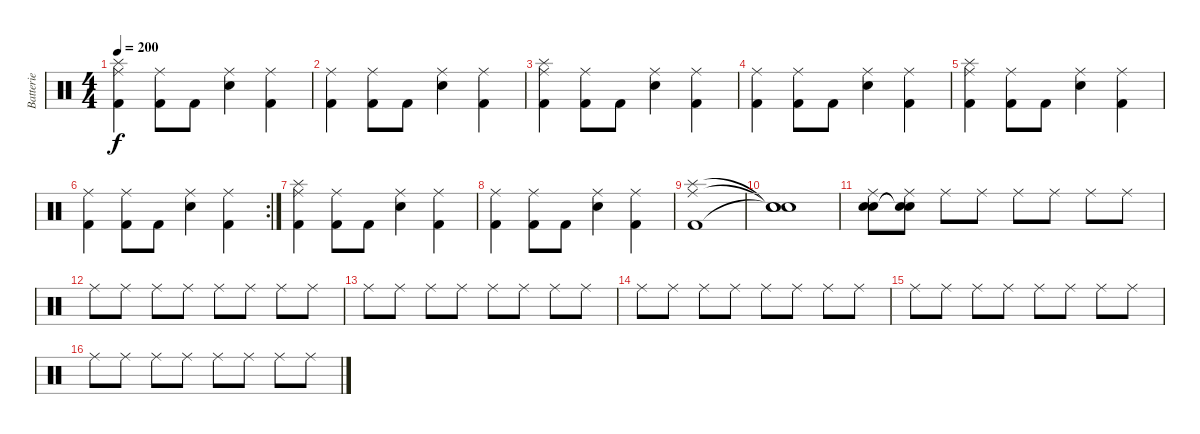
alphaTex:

\track ("Batterie" "Batterie") {instrument percussion}
\staff {score}
\articulation defaults
\ts (4 4)
\tempo 200
\clef neutral
\ks c
("Splash (hit)" "Ride (middle)" "Kick (hit) 2").4{dy f} ("Ride (middle)" "Kick (hit) 2").8 "Kick (hit) 2".8 ("Ride (middle)" "Snare (hit) 2").4 ("Ride (middle)" "Kick (hit) 2").4 |
("Ride (middle)" "Kick (hit) 2").4 ("Ride (middle)" "Kick (hit) 2").8 "Kick (hit) 2".8 ("Ride (middle)" "Snare (hit) 2").4 ("Ride (middle)" "Kick (hit) 2").4 |
("Splash (hit)" "Ride (middle)" "Kick (hit) 2").4 ("Ride (middle)" "Kick (hit) 2").8 "Kick (hit) 2".8 ("Ride (middle)" "Snare (hit) 2").4 ("Ride (middle)" "Kick (hit) 2").4 |
("Ride (middle)" "Kick (hit) 2").4 ("Ride (middle)" "Kick (hit) 2").8 "Kick (hit) 2".8 ("Ride (middle)" "Snare (hit) 2").4 ("Ride (middle)" "Kick (hit) 2").4 |
("Splash (hit)" "Ride (middle)" "Kick (hit) 2").4 ("Ride (middle)" "Kick (hit) 2").8 "Kick (hit) 2".8 ("Ride (middle)" "Snare (hit) 2").4 ("Ride (middle)" "Kick (hit) 2").4 |
\rc 2
("Ride (middle)" "Kick (hit) 2").4 ("Ride (middle)" "Kick (hit) 2").8 "Kick (hit) 2".8 ("Ride (middle)" "Snare (hit) 2").4 ("Ride (middle)" "Kick (hit) 2").4 |
("Splash (hit)" "Ride (middle)" "Kick (hit) 2").4 ("Ride (middle)" "Kick (hit) 2").8 "Kick (hit) 2".8 ("Ride (middle)" "Snare (hit) 2").4 ("Ride (middle)" "Kick (hit) 2").4 |
("Ride (middle)" "Kick (hit) 2").4 ("Ride (middle)" "Kick (hit) 2").8 "Kick (hit) 2".8 ("Ride (middle)" "Snare (hit) 2").4 ("Ride (middle)" "Kick (hit) 2").4 |
("Splash (hit)" "Ride (middle)" "Kick (hit) 2").1 |
("Snare (hit)"{t} "Snare (hit)"{t} "Snare (hit)"{t}).1 |
("Ride (middle)" "Snare (hit) 2" "Snare (hit) 2").8 ("Ride (middle)" "Snare (hit)"{t} "Snare (hit)"{t}).8 "Ride (middle)".8 "Ride (middle)".8 "Ride (middle)".8 "Ride (middle)".8 "Ride (middle)".8 "Ride (middle)".8 |
"Ride (middle)".8 "Ride (middle)".8 "Ride (middle)".8 "Ride (middle)".8 "Ride (middle)".8 "Ride (middle)".8 "Ride (middle)".8 "Ride (middle)".8 |
"Ride (middle)".8 "Ride (middle)".8 "Ride (middle)".8 "Ride (middle)".8 "Ride (middle)".8 "Ride (middle)".8 "Ride (middle)".8 "Ride (middle)".8 |
"Ride (middle)".8 "Ride (middle)".8 "Ride (middle)".8 "Ride (middle)".8 "Ride (middle)".8 "Ride (middle)".8 "Ride (middle)".8 "Ride (middle)".8 |
"Ride (middle)".8 "Ride (middle)".8 "Ride (middle)".8 "Ride (middle)".8 "Ride (middle)".8 "Ride (middle)".8 "Ride (middle)".8 "Ride (middle)".8 |
"Ride (middle)".8 "Ride (middle)".8 "Ride (middle)".8 "Ride (middle)".8 "Ride (middle)".8 "Ride (middle)".8 "Ride (middle)".8 "Ride (middle)".8
